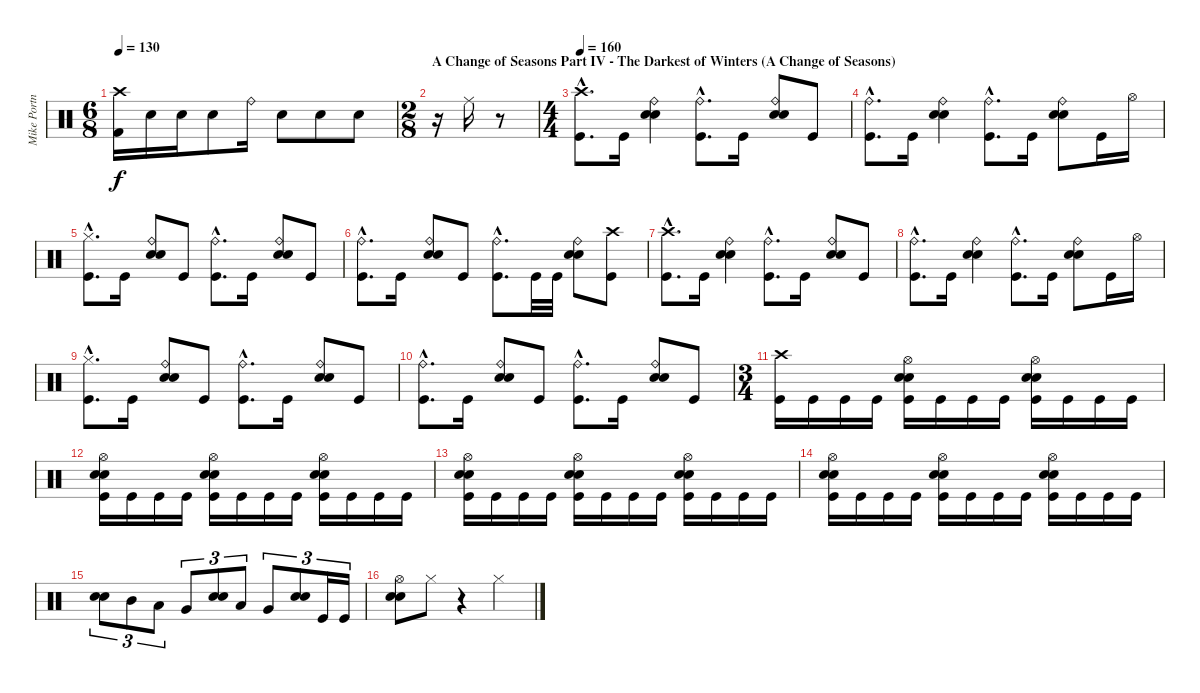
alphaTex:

\track ("Mike Portnoy Drums" "Mike Portn") {instrument percussion}
\staff {score}
\articulation defaults
\ts (6 8)
\tempo 130
\clef neutral
\ks c
("Crash high (hit)" "Kick (hit) 2").16{dy f} "Electric Snare (hit)".16 "Electric Snare (hit)".16 "Electric Snare (hit)".8 "Ride (bell)".16 "Electric Snare (hit)".8 "Electric Snare (hit)".8 "Electric Snare (hit)".8 |
\ts (2 8)
\section ("" "A Change of Seasons Part IV - The Darkest of Winters (A Change of Seasons)")
r.16 "Ride (middle)".16 r.8 |
\ts (4 4)
\tempo 160
("Crash high (hit)"{hac} "Kick (hit)"{hac}).8{d} "Kick (hit)".16 ("Ride (bell)" "Snare (hit) 2" "Electric Snare (hit)").4 ("Ride (bell)"{hac} "Kick (hit)"{hac}).8{d} "Kick (hit)".16 ("Ride (bell)" "Snare (hit) 2" "Electric Snare (hit)").8 "Kick (hit)".8 |
("Ride (bell)"{hac} "Kick (hit)"{hac}).8{d} "Kick (hit)".16 ("Ride (bell)" "Snare (hit) 2" "Electric Snare (hit)").4 ("Ride (bell)"{hac} "Kick (hit)"{hac}).8{d} "Kick (hit)".16 ("Ride (bell)" "Snare (hit) 2" "Electric Snare (hit)").8 "Kick (hit)".16 "Hi-Hat (open)".16 |
("Hi-Hat (closed)"{hac} "Kick (hit)"{hac}).8{d} "Kick (hit)".16 ("Ride (bell)" "Snare (hit) 2" "Electric Snare (hit)").8 "Kick (hit)".8 ("Ride (bell)"{hac} "Kick (hit)"{hac}).8{d} "Kick (hit)".16 ("Ride (bell)" "Snare (hit) 2" "Electric Snare (hit)").8 "Kick (hit)".8 |
("Ride (bell)"{hac} "Kick (hit)"{hac}).8{d} "Kick (hit)".16 ("Ride (bell)" "Snare (hit) 2" "Electric Snare (hit)").8 "Kick (hit)".8 ("Ride (bell)"{hac} "Kick (hit)"{hac}).8{d} "Kick (hit)".32 "Kick (hit)".32 ("Ride (bell)" "Snare (hit) 2" "Electric Snare (hit)").8 ("Crash high (hit)" "Kick (hit)").8 |
("Crash high (hit)"{hac} "Kick (hit)"{hac}).8{d} "Kick (hit)".16 ("Ride (bell)" "Snare (hit) 2" "Electric Snare (hit)").4 ("Ride (bell)"{hac} "Kick (hit)"{hac}).8{d} "Kick (hit)".16 ("Ride (bell)" "Snare (hit) 2" "Electric Snare (hit)").8 "Kick (hit)".8 |
("Ride (bell)"{hac} "Kick (hit)"{hac}).8{d} "Kick (hit)".16 ("Ride (bell)" "Snare (hit) 2" "Electric Snare (hit)").4 ("Ride (bell)"{hac} "Kick (hit)"{hac}).8{d} "Kick (hit)".16 ("Ride (bell)" "Snare (hit) 2" "Electric Snare (hit)").8 "Kick (hit)".16 "Hi-Hat (open)".16 |
("Hi-Hat (closed)"{hac} "Kick (hit)"{hac}).8{d} "Kick (hit)".16 ("Ride (bell)" "Snare (hit) 2" "Electric Snare (hit)").8 "Kick (hit)".8 ("Ride (bell)"{hac} "Kick (hit)"{hac}).8{d} "Kick (hit)".16 ("Ride (bell)" "Snare (hit) 2" "Electric Snare (hit)").8 "Kick (hit)".8 |
("Ride (bell)"{hac} "Kick (hit)"{hac}).8{d} "Kick (hit)".16 ("Ride (bell)" "Snare (hit) 2" "Electric Snare (hit)").8 "Kick (hit)".8 ("Ride (bell)"{hac} "Kick (hit)"{hac}).8{d} "Kick (hit)".16 ("Ride (bell)" "Snare (hit) 2" "Electric Snare (hit)").8 "Kick (hit)".8 |
\ts (3 4)
("Crash high (hit)" "Kick (hit)").16 "Kick (hit)".16 "Kick (hit)".16 "Kick (hit)".16 ("Hi-Hat (open)" "Snare (hit) 2" "Electric Snare (hit)" "Kick (hit)").16 "Kick (hit)".16 "Kick (hit)".16 "Kick (hit)".16 ("Hi-Hat (open)" "Snare (hit) 2" "Electric Snare (hit)" "Kick (hit)").16 "Kick (hit)".16 "Kick (hit)".16 "Kick (hit)".16 |
("Hi-Hat (open)" "Snare (hit) 2" "Electric Snare (hit)" "Kick (hit)").16 "Kick (hit)".16 "Kick (hit)".16 "Kick (hit)".16 ("Hi-Hat (open)" "Snare (hit) 2" "Electric Snare (hit)" "Kick (hit)").16 "Kick (hit)".16 "Kick (hit)".16 "Kick (hit)".16 ("Hi-Hat (open)" "Snare (hit) 2" "Electric Snare (hit)" "Kick (hit)").16 "Kick (hit)".16 "Kick (hit)".16 "Kick (hit)".16 |
("Hi-Hat (open)" "Snare (hit) 2" "Electric Snare (hit)" "Kick (hit)").16 "Kick (hit)".16 "Kick (hit)".16 "Kick (hit)".16 ("Hi-Hat (open)" "Snare (hit) 2" "Electric Snare (hit)" "Kick (hit)").16 "Kick (hit)".16 "Kick (hit)".16 "Kick (hit)".16 ("Hi-Hat (open)" "Snare (hit) 2" "Electric Snare (hit)" "Kick (hit)").16 "Kick (hit)".16 "Kick (hit)".16 "Kick (hit)".16 |
("Hi-Hat (open)" "Snare (hit) 2" "Electric Snare (hit)" "Kick (hit)").16 "Kick (hit)".16 "Kick (hit)".16 "Kick (hit)".16 ("Hi-Hat (open)" "Snare (hit) 2" "Electric Snare (hit)" "Kick (hit)").16 "Kick (hit)".16 "Kick (hit)".16 "Kick (hit)".16 ("Hi-Hat (open)" "Snare (hit) 2" "Electric Snare (hit)" "Kick (hit)").16 "Kick (hit)".16 "Kick (hit)".16 "Kick (hit)".16 |
("Snare (hit) 2" "Electric Snare (hit)").8{tu (3 2)} "Mid Tom (hit)".8{tu (3 2)} "Low Tom (hit)".8{tu (3 2)} "Very Low Tom (hit)".8{tu (3 2)} ("Snare (hit) 2" "Electric Snare (hit)").8{tu (3 2)} "Low Tom (hit)".8{tu (3 2)} "Very Low Tom (hit)".8{tu (3 2)} ("Snare (hit) 2" "Electric Snare (hit)").8{tu (3 2)} "Kick (hit)".16{tu (3 2)} "Kick (hit)".16{tu (3 2)} |
("Hi-Hat (open)" "Snare (hit) 2" "Electric Snare (hit)").8 "Hi-Hat (closed)".8 r.4 "Hi-Hat (closed)".4
